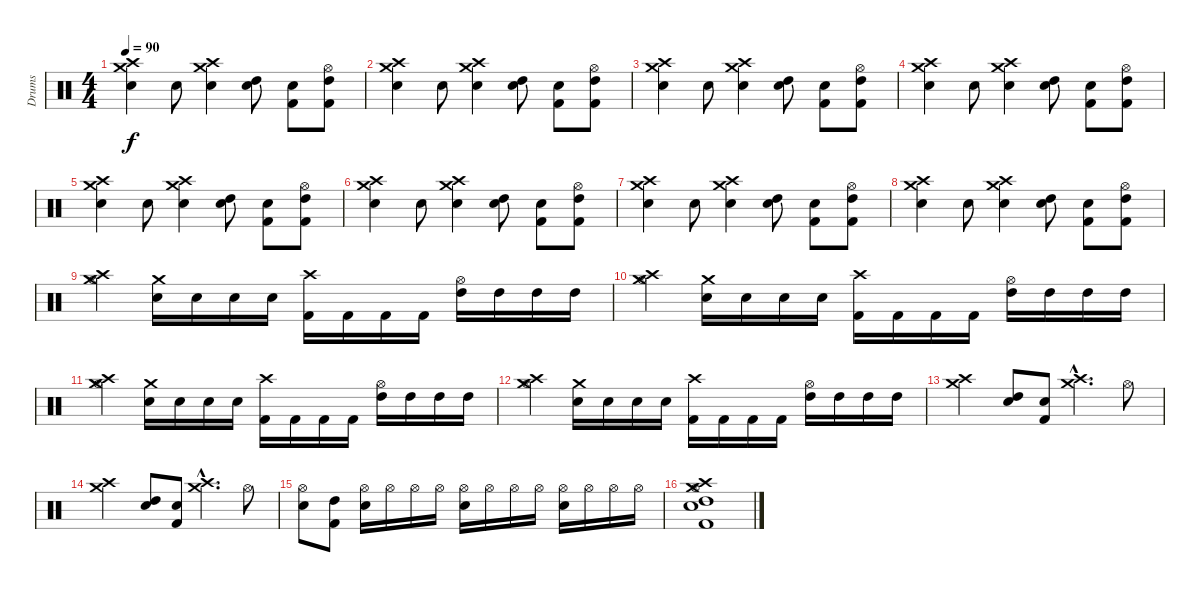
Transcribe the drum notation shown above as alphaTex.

\track ("Drums" "Drums") {instrument percussion}
\staff {score}
\articulation defaults
\ts (4 4)
\tempo 90
\clef neutral
\ks c
("Crash high (hit)" "Crash medium (hit)" "Electric Snare (hit)").4{dy f} "Electric Snare (hit)".8 ("Crash high (hit)" "Crash medium (hit)" "Electric Snare (hit)").4 ("High Tom (hit)" "Electric Snare (hit)").8 ("Kick (hit) 2" "Electric Snare (hit)").8 ("High Tom (hit)" "Kick (hit) 2" "Hi-Hat (open)").8 |
("Crash high (hit)" "Crash medium (hit)" "Electric Snare (hit)").4 "Electric Snare (hit)".8 ("Crash high (hit)" "Crash medium (hit)" "Electric Snare (hit)").4 ("High Tom (hit)" "Electric Snare (hit)").8 ("Kick (hit) 2" "Electric Snare (hit)").8 ("High Tom (hit)" "Kick (hit) 2" "Hi-Hat (open)").8 |
("Crash high (hit)" "Crash medium (hit)" "Electric Snare (hit)").4 "Electric Snare (hit)".8 ("Crash high (hit)" "Crash medium (hit)" "Electric Snare (hit)").4 ("High Tom (hit)" "Electric Snare (hit)").8 ("Kick (hit) 2" "Electric Snare (hit)").8 ("High Tom (hit)" "Kick (hit) 2" "Hi-Hat (open)").8 |
("Crash high (hit)" "Crash medium (hit)" "Electric Snare (hit)").4 "Electric Snare (hit)".8 ("Crash high (hit)" "Crash medium (hit)" "Electric Snare (hit)").4 ("High Tom (hit)" "Electric Snare (hit)").8 ("Kick (hit) 2" "Electric Snare (hit)").8 ("High Tom (hit)" "Kick (hit) 2" "Hi-Hat (open)").8 |
("Crash high (hit)" "Crash medium (hit)" "Electric Snare (hit)").4 "Electric Snare (hit)".8 ("Crash high (hit)" "Crash medium (hit)" "Electric Snare (hit)").4 ("High Tom (hit)" "Electric Snare (hit)").8 ("Kick (hit) 2" "Electric Snare (hit)").8 ("High Tom (hit)" "Kick (hit) 2" "Hi-Hat (open)").8 |
("Crash high (hit)" "Crash medium (hit)" "Electric Snare (hit)").4 "Electric Snare (hit)".8 ("Crash high (hit)" "Crash medium (hit)" "Electric Snare (hit)").4 ("High Tom (hit)" "Electric Snare (hit)").8 ("Kick (hit) 2" "Electric Snare (hit)").8 ("High Tom (hit)" "Kick (hit) 2" "Hi-Hat (open)").8 |
("Crash high (hit)" "Crash medium (hit)" "Electric Snare (hit)").4 "Electric Snare (hit)".8 ("Crash high (hit)" "Crash medium (hit)" "Electric Snare (hit)").4 ("High Tom (hit)" "Electric Snare (hit)").8 ("Kick (hit) 2" "Electric Snare (hit)").8 ("High Tom (hit)" "Kick (hit) 2" "Hi-Hat (open)").8 |
("Crash high (hit)" "Crash medium (hit)" "Electric Snare (hit)").4 "Electric Snare (hit)".8 ("Crash high (hit)" "Crash medium (hit)" "Electric Snare (hit)").4 ("High Tom (hit)" "Electric Snare (hit)").8 ("Kick (hit) 2" "Electric Snare (hit)").8 ("High Tom (hit)" "Kick (hit) 2" "Hi-Hat (open)").8 |
("Crash medium (hit)" "Crash high (hit)" "Hi-Hat (open)").4 ("Crash medium (hit)" "Electric Snare (hit)").16 "Electric Snare (hit)".16 "Electric Snare (hit)".16 "Electric Snare (hit)".16 ("Crash high (hit)" "Kick (hit) 2").16 "Kick (hit) 2".16 "Kick (hit) 2".16 "Kick (hit) 2".16 ("Hi-Hat (open)" "High Tom (hit)").16 "High Tom (hit)".16 "High Tom (hit)".16 "High Tom (hit)".16 |
("Crash medium (hit)" "Crash high (hit)" "Hi-Hat (open)").4 ("Crash medium (hit)" "Electric Snare (hit)").16 "Electric Snare (hit)".16 "Electric Snare (hit)".16 "Electric Snare (hit)".16 ("Crash high (hit)" "Kick (hit) 2").16 "Kick (hit) 2".16 "Kick (hit) 2".16 "Kick (hit) 2".16 ("Hi-Hat (open)" "High Tom (hit)").16 "High Tom (hit)".16 "High Tom (hit)".16 "High Tom (hit)".16 |
("Crash medium (hit)" "Crash high (hit)" "Hi-Hat (open)").4 ("Crash medium (hit)" "Electric Snare (hit)").16 "Electric Snare (hit)".16 "Electric Snare (hit)".16 "Electric Snare (hit)".16 ("Crash high (hit)" "Kick (hit) 2").16 "Kick (hit) 2".16 "Kick (hit) 2".16 "Kick (hit) 2".16 ("Hi-Hat (open)" "High Tom (hit)").16 "High Tom (hit)".16 "High Tom (hit)".16 "High Tom (hit)".16 |
("Crash medium (hit)" "Crash high (hit)" "Hi-Hat (open)").4 ("Crash medium (hit)" "Electric Snare (hit)").16 "Electric Snare (hit)".16 "Electric Snare (hit)".16 "Electric Snare (hit)".16 ("Crash high (hit)" "Kick (hit) 2").16 "Kick (hit) 2".16 "Kick (hit) 2".16 "Kick (hit) 2".16 ("Hi-Hat (open)" "High Tom (hit)").16 "High Tom (hit)".16 "High Tom (hit)".16 "High Tom (hit)".16 |
("Crash high (hit)" "Crash medium (hit)").4 ("High Tom (hit)" "Electric Snare (hit)").8 ("Electric Snare (hit)" "Kick (hit) 2").8 ("Crash high (hit)"{hac} "Crash medium (hit)"{hac}).4{d} "Hi-Hat (open)".8 |
("Crash high (hit)" "Crash medium (hit)").4 ("High Tom (hit)" "Electric Snare (hit)").8 ("Electric Snare (hit)" "Kick (hit) 2").8 ("Crash high (hit)"{hac} "Crash medium (hit)"{hac}).4{d} "Hi-Hat (open)".8 |
("Hi-Hat (open)" "Electric Snare (hit)").8 ("High Tom (hit)" "Kick (hit) 2").8 ("Electric Snare (hit)" "Hi-Hat (open)").16 "Hi-Hat (open)".16 "Hi-Hat (open)".16 "Hi-Hat (open)".16 ("Hi-Hat (open)" "Electric Snare (hit)").16 "Hi-Hat (open)".16 "Hi-Hat (open)".16 "Hi-Hat (open)".16 ("Hi-Hat (open)" "Electric Snare (hit)").16 "Hi-Hat (open)".16 "Hi-Hat (open)".16 "Hi-Hat (open)".16 |
("Kick (hit) 2" "Electric Snare (hit)" "High Tom (hit)" "Hi-Hat (open)" "Crash medium (hit)" "Crash high (hit)").1
